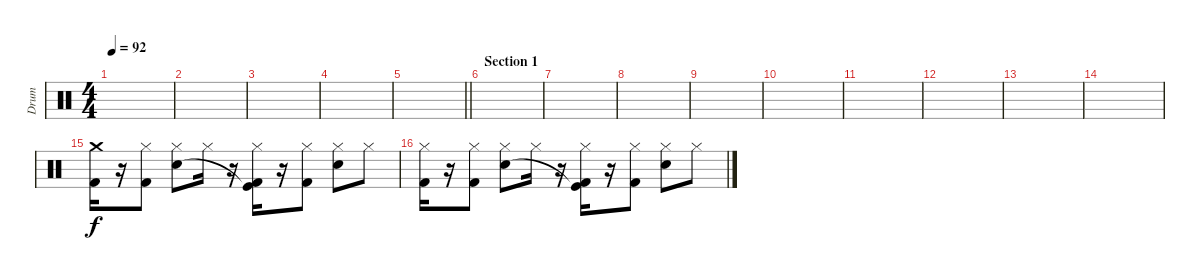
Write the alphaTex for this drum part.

\track ("Drum" "Drum") {instrument percussion}
\staff {score}
\articulation defaults
\ts (4 4)
\tempo 92
\clef neutral
\ks c
|
|
|
|
\barLineRight lightlight
|
\section ("" "Section 1")
|
|
|
|
|
|
|
|
|
("Crash medium (hit)" "Kick (hit) 2").16 r.16 ("Hi-Hat (closed)" "Kick (hit) 2").8 ("Hi-Hat (closed)" "Snare (hit) 2").8 "Hi-Hat (closed)".16 r.16 ("Hi-Hat (closed)" "Kick (hit)"{t} "Kick (hit) 2").16 r.16 ("Hi-Hat (closed)" "Kick (hit) 2").8 ("Hi-Hat (closed)" "Snare (hit) 2").8 "Hi-Hat (closed)".8 |
("Hi-Hat (closed)" "Kick (hit) 2").16 r.16 ("Hi-Hat (closed)" "Kick (hit) 2").8 ("Hi-Hat (closed)" "Snare (hit) 2").8 "Hi-Hat (closed)".16 r.16 ("Hi-Hat (closed)" "Kick (hit)"{t} "Kick (hit) 2").16 r.16 ("Hi-Hat (closed)" "Kick (hit) 2").8 ("Hi-Hat (closed)" "Snare (hit) 2").8 "Hi-Hat (closed)".8
